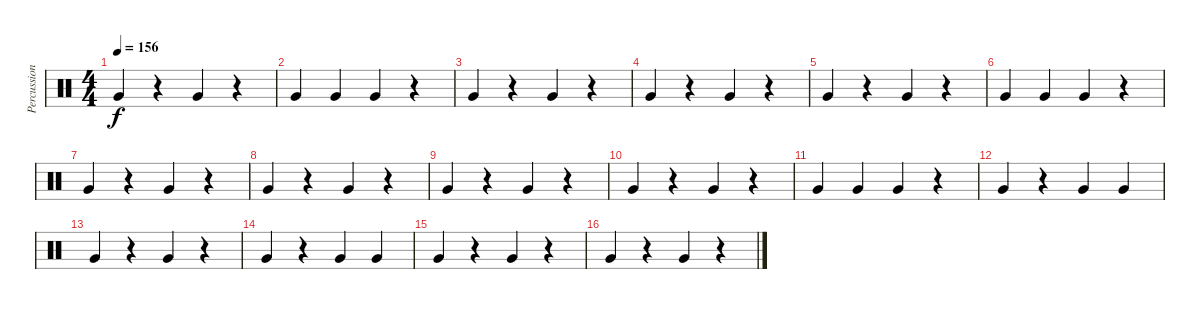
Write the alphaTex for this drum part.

\track ("Percussions" "Percussion") {instrument percussion}
\staff {score}
\articulation defaults
\ts (4 4)
\tempo 156
\clef neutral
\ks c "Very Low Tom (hit)".4{dy f}
r.4 "Very Low Tom (hit)".4 r.4 |
"Very Low Tom (hit)".4 "Very Low Tom (hit)".4 "Very Low Tom (hit)".4 r.4 |
"Very Low Tom (hit)".4 r.4 "Very Low Tom (hit)".4 r.4 |
"Very Low Tom (hit)".4 r.4 "Very Low Tom (hit)".4 r.4 |
"Very Low Tom (hit)".4 r.4 "Very Low Tom (hit)".4 r.4 |
"Very Low Tom (hit)".4 "Very Low Tom (hit)".4 "Very Low Tom (hit)".4 r.4 |
"Very Low Tom (hit)".4 r.4 "Very Low Tom (hit)".4 r.4 |
"Very Low Tom (hit)".4 r.4 "Very Low Tom (hit)".4 r.4 |
"Very Low Tom (hit)".4 r.4 "Very Low Tom (hit)".4 r.4 |
"Very Low Tom (hit)".4 r.4 "Very Low Tom (hit)".4 r.4 |
"Very Low Tom (hit)".4 "Very Low Tom (hit)".4 "Very Low Tom (hit)".4 r.4 |
"Very Low Tom (hit)".4 r.4 "Very Low Tom (hit)".4 "Very Low Tom (hit)".4 |
"Very Low Tom (hit)".4 r.4 "Very Low Tom (hit)".4 r.4 |
"Very Low Tom (hit)".4 r.4 "Very Low Tom (hit)".4 "Very Low Tom (hit)".4 |
"Very Low Tom (hit)".4 r.4 "Very Low Tom (hit)".4 r.4 |
"Very Low Tom (hit)".4 r.4 "Very Low Tom (hit)".4 r.4
